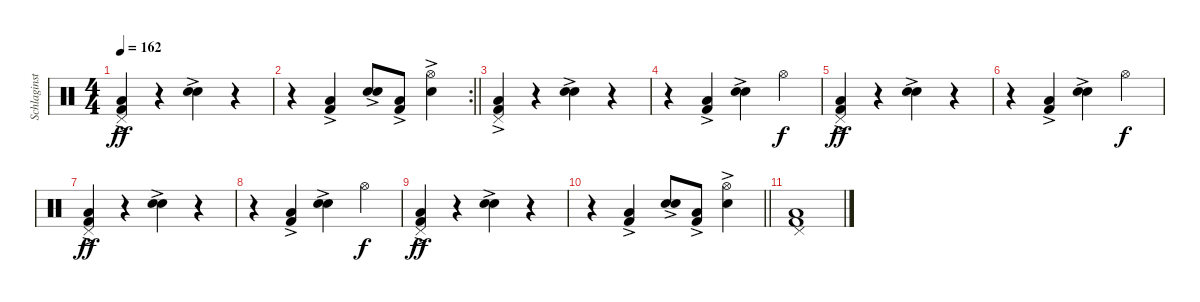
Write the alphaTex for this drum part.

\track ("Schlaginstrumente - Auswahl" "Schlaginst") {instrument percussion}
\staff {score}
\articulation defaults
\ts (4 4)
\tempo 162
\clef neutral
\ks c
("Pedal Hi-Hat (hit)" "Kick (hit) 2"{ac} "Low Floor Tom (hit)").4{dy ff} r.4 ("Hand Clap (hit)" "Electric Snare (hit)"{ac}).4 r.4 |
\rc 2
\barLineRight lightlight
r.4 ("Low Floor Tom (hit)" "Kick (hit) 2"{ac}).4 ("Hand Clap (hit)" "Electric Snare (hit)"{ac}).8 ("Low Floor Tom (hit)" "Kick (hit) 2"{ac}).8 ("Hi-Hat (open)" "Electric Snare (hit)"{ac}).4 |
("Pedal Hi-Hat (hit)" "Low Floor Tom (hit)" "Kick (hit) 2"{ac}).4 r.4 ("Hand Clap (hit)" "Electric Snare (hit)"{ac}).4 r.4 |
r.4 ("Low Floor Tom (hit)" "Kick (hit) 2"{ac}).4 ("Hand Clap (hit)" "Electric Snare (hit)"{ac}).4 "Hi-Hat (open)".4{dy f} |
("Pedal Hi-Hat (hit)" "Low Floor Tom (hit)" "Kick (hit) 2"{ac}).4{dy ff} r.4 ("Hand Clap (hit)" "Electric Snare (hit)"{ac}).4 r.4 |
r.4 ("Low Floor Tom (hit)" "Kick (hit) 2"{ac}).4 ("Hand Clap (hit)" "Electric Snare (hit)"{ac}).4 "Hi-Hat (open)".4{dy f} |
("Pedal Hi-Hat (hit)" "Low Floor Tom (hit)" "Kick (hit) 2"{ac}).4{dy ff} r.4 ("Hand Clap (hit)" "Electric Snare (hit)"{ac}).4 r.4 |
r.4 ("Low Floor Tom (hit)" "Kick (hit) 2"{ac}).4 ("Hand Clap (hit)" "Electric Snare (hit)"{ac}).4 "Hi-Hat (open)".4{dy f} |
("Pedal Hi-Hat (hit)" "Kick (hit) 2"{ac} "Low Floor Tom (hit)").4{dy ff} r.4 ("Hand Clap (hit)" "Electric Snare (hit)"{ac}).4 r.4 |
\barLineRight lightlight
r.4 ("Low Floor Tom (hit)" "Kick (hit) 2"{ac}).4 ("Hand Clap (hit)" "Electric Snare (hit)"{ac}).8 ("Low Floor Tom (hit)" "Kick (hit) 2"{ac}).8 ("Hi-Hat (open)" "Electric Snare (hit)"{ac}).4 |
("Pedal Hi-Hat (hit)" "Low Floor Tom (hit)" "Kick (hit) 2").1
